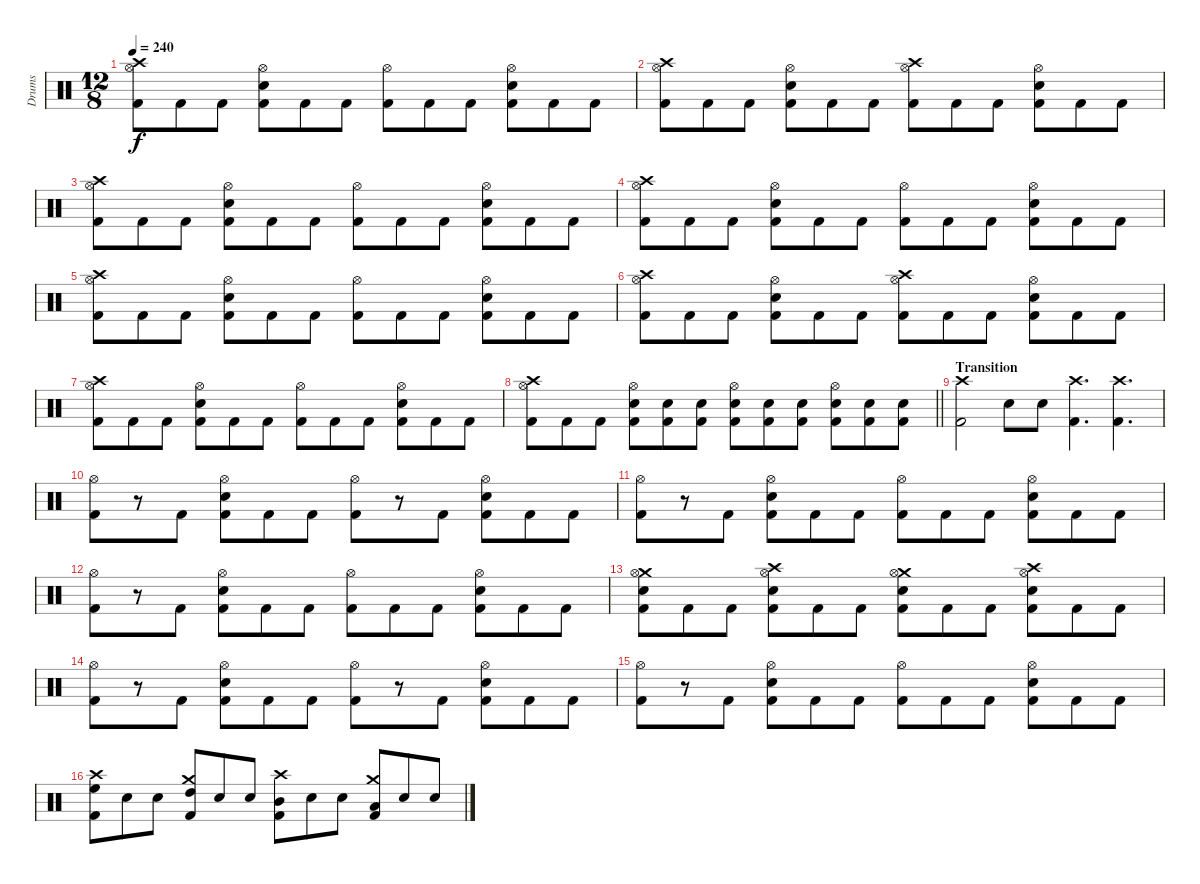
\track ("Drums" "Drums") {instrument percussion}
\staff {score}
\articulation defaults
\ts (12 8)
\tempo 240
\clef neutral
\ks c
("Crash high (hit)" "Hi-Hat (open)" "Kick (hit) 2").8{dy f} "Kick (hit) 2".8 "Kick (hit) 2".8 ("Hi-Hat (open)" "Snare (hit) 2" "Kick (hit) 2").8 "Kick (hit) 2".8 "Kick (hit) 2".8 ("Hi-Hat (open)" "Kick (hit) 2").8 "Kick (hit) 2".8 "Kick (hit) 2".8 ("Hi-Hat (open)" "Snare (hit) 2" "Kick (hit) 2").8 "Kick (hit) 2".8 "Kick (hit) 2".8 |
("Crash high (hit)" "Hi-Hat (open)" "Kick (hit) 2").8 "Kick (hit) 2".8 "Kick (hit) 2".8 ("Hi-Hat (open)" "Snare (hit) 2" "Kick (hit) 2").8 "Kick (hit) 2".8 "Kick (hit) 2".8 ("Crash high (hit)" "Hi-Hat (open)" "Kick (hit) 2").8 "Kick (hit) 2".8 "Kick (hit) 2".8 ("Hi-Hat (open)" "Snare (hit) 2" "Kick (hit) 2").8 "Kick (hit) 2".8 "Kick (hit) 2".8 |
("Crash high (hit)" "Hi-Hat (open)" "Kick (hit) 2").8 "Kick (hit) 2".8 "Kick (hit) 2".8 ("Hi-Hat (open)" "Snare (hit) 2" "Kick (hit) 2").8 "Kick (hit) 2".8 "Kick (hit) 2".8 ("Hi-Hat (open)" "Kick (hit) 2").8 "Kick (hit) 2".8 "Kick (hit) 2".8 ("Hi-Hat (open)" "Snare (hit) 2" "Kick (hit) 2").8 "Kick (hit) 2".8 "Kick (hit) 2".8 |
("Crash high (hit)" "Hi-Hat (open)" "Kick (hit) 2").8 "Kick (hit) 2".8 "Kick (hit) 2".8 ("Hi-Hat (open)" "Snare (hit) 2" "Kick (hit) 2").8 "Kick (hit) 2".8 "Kick (hit) 2".8 ("Hi-Hat (open)" "Kick (hit) 2").8 "Kick (hit) 2".8 "Kick (hit) 2".8 ("Hi-Hat (open)" "Snare (hit) 2" "Kick (hit) 2").8 "Kick (hit) 2".8 "Kick (hit) 2".8 |
("Crash high (hit)" "Hi-Hat (open)" "Kick (hit) 2").8 "Kick (hit) 2".8 "Kick (hit) 2".8 ("Hi-Hat (open)" "Snare (hit) 2" "Kick (hit) 2").8 "Kick (hit) 2".8 "Kick (hit) 2".8 ("Hi-Hat (open)" "Kick (hit) 2").8 "Kick (hit) 2".8 "Kick (hit) 2".8 ("Hi-Hat (open)" "Snare (hit) 2" "Kick (hit) 2").8 "Kick (hit) 2".8 "Kick (hit) 2".8 |
("Crash high (hit)" "Hi-Hat (open)" "Kick (hit) 2").8 "Kick (hit) 2".8 "Kick (hit) 2".8 ("Hi-Hat (open)" "Snare (hit) 2" "Kick (hit) 2").8 "Kick (hit) 2".8 "Kick (hit) 2".8 ("Crash high (hit)" "Hi-Hat (open)" "Kick (hit) 2").8 "Kick (hit) 2".8 "Kick (hit) 2".8 ("Hi-Hat (open)" "Snare (hit) 2" "Kick (hit) 2").8 "Kick (hit) 2".8 "Kick (hit) 2".8 |
("Crash high (hit)" "Hi-Hat (open)" "Kick (hit) 2").8 "Kick (hit) 2".8 "Kick (hit) 2".8 ("Hi-Hat (open)" "Snare (hit) 2" "Kick (hit) 2").8 "Kick (hit) 2".8 "Kick (hit) 2".8 ("Hi-Hat (open)" "Kick (hit) 2").8 "Kick (hit) 2".8 "Kick (hit) 2".8 ("Hi-Hat (open)" "Snare (hit) 2" "Kick (hit) 2").8 "Kick (hit) 2".8 "Kick (hit) 2".8 |
\barLineRight lightlight
("Crash high (hit)" "Hi-Hat (open)" "Kick (hit) 2").8 "Kick (hit) 2".8 "Kick (hit) 2".8 ("Hi-Hat (open)" "Snare (hit) 2" "Kick (hit) 2").8 ("Snare (hit) 2" "Kick (hit) 2").8 ("Snare (hit) 2" "Kick (hit) 2").8 ("Hi-Hat (open)" "Snare (hit) 2" "Kick (hit) 2").8 ("Snare (hit) 2" "Kick (hit) 2").8 ("Snare (hit) 2" "Kick (hit) 2").8 ("Hi-Hat (open)" "Snare (hit) 2" "Kick (hit) 2").8 ("Snare (hit) 2" "Kick (hit) 2").8 ("Snare (hit) 2" "Kick (hit) 2").8 |
\section ("" "Transition")
("Crash high (hit)" "Kick (hit) 2").2 "Snare (hit) 2".8 "Snare (hit) 2".8 ("Crash high (hit)" "Kick (hit) 2").4{d} ("Crash high (hit)" "Kick (hit) 2").4{d} |
("Hi-Hat (open)" "Kick (hit) 2").8 r.8 "Kick (hit) 2".8 ("Hi-Hat (open)" "Snare (hit) 2" "Kick (hit) 2").8 "Kick (hit) 2".8 "Kick (hit) 2".8 ("Hi-Hat (open)" "Kick (hit) 2").8 r.8 "Kick (hit) 2".8 ("Hi-Hat (open)" "Snare (hit) 2" "Kick (hit) 2").8 "Kick (hit) 2".8 "Kick (hit) 2".8 |
("Hi-Hat (open)" "Kick (hit) 2").8 r.8 "Kick (hit) 2".8 ("Hi-Hat (open)" "Snare (hit) 2" "Kick (hit) 2").8 "Kick (hit) 2".8 "Kick (hit) 2".8 ("Hi-Hat (open)" "Kick (hit) 2").8 "Kick (hit) 2".8 "Kick (hit) 2".8 ("Hi-Hat (open)" "Snare (hit) 2" "Kick (hit) 2").8 "Kick (hit) 2".8 "Kick (hit) 2".8 |
("Hi-Hat (open)" "Kick (hit) 2").8 r.8 "Kick (hit) 2".8 ("Hi-Hat (open)" "Snare (hit) 2" "Kick (hit) 2").8 "Kick (hit) 2".8 "Kick (hit) 2".8 ("Hi-Hat (open)" "Kick (hit) 2").8 "Kick (hit) 2".8 "Kick (hit) 2".8 ("Hi-Hat (open)" "Snare (hit) 2" "Kick (hit) 2").8 "Kick (hit) 2".8 "Kick (hit) 2".8 |
("Crash medium (hit)" "Hi-Hat (open)" "Snare (hit) 2" "Kick (hit) 2").8 "Kick (hit) 2".8 "Kick (hit) 2".8 ("Crash high (hit)" "Hi-Hat (open)" "Snare (hit) 2" "Kick (hit) 2").8 "Kick (hit) 2".8 "Kick (hit) 2".8 ("Crash medium (hit)" "Hi-Hat (open)" "Snare (hit) 2" "Kick (hit) 2").8 "Kick (hit) 2".8 "Kick (hit) 2".8 ("Crash high (hit)" "Hi-Hat (open)" "Snare (hit) 2" "Kick (hit) 2").8 "Kick (hit) 2".8 "Kick (hit) 2".8 |
("Hi-Hat (open)" "Kick (hit) 2").8 r.8 "Kick (hit) 2".8 ("Hi-Hat (open)" "Snare (hit) 2" "Kick (hit) 2").8 "Kick (hit) 2".8 "Kick (hit) 2".8 ("Hi-Hat (open)" "Kick (hit) 2").8 r.8 "Kick (hit) 2".8 ("Hi-Hat (open)" "Snare (hit) 2" "Kick (hit) 2").8 "Kick (hit) 2".8 "Kick (hit) 2".8 |
("Hi-Hat (open)" "Kick (hit) 2").8 r.8 "Kick (hit) 2".8 ("Hi-Hat (open)" "Snare (hit) 2" "Kick (hit) 2").8 "Kick (hit) 2".8 "Kick (hit) 2".8 ("Hi-Hat (open)" "Kick (hit) 2").8 "Kick (hit) 2".8 "Kick (hit) 2".8 ("Hi-Hat (open)" "Snare (hit) 2" "Kick (hit) 2").8 "Kick (hit) 2".8 "Kick (hit) 2".8 |
("Crash high (hit)" "High Floor Tom (hit)" "Kick (hit) 2").8 "Snare (hit) 2".8 "Snare (hit) 2".8 ("Crash medium (hit)" "High Tom (hit)" "Kick (hit) 2").8 "Snare (hit) 2".8 "Snare (hit) 2".8 ("Crash high (hit)" "Mid Tom (hit)" "Kick (hit) 2").8 "Snare (hit) 2".8 "Snare (hit) 2".8 ("Crash medium (hit)" "Low Tom (hit)" "Kick (hit) 2").8 "Snare (hit) 2".8 "Snare (hit) 2".8
